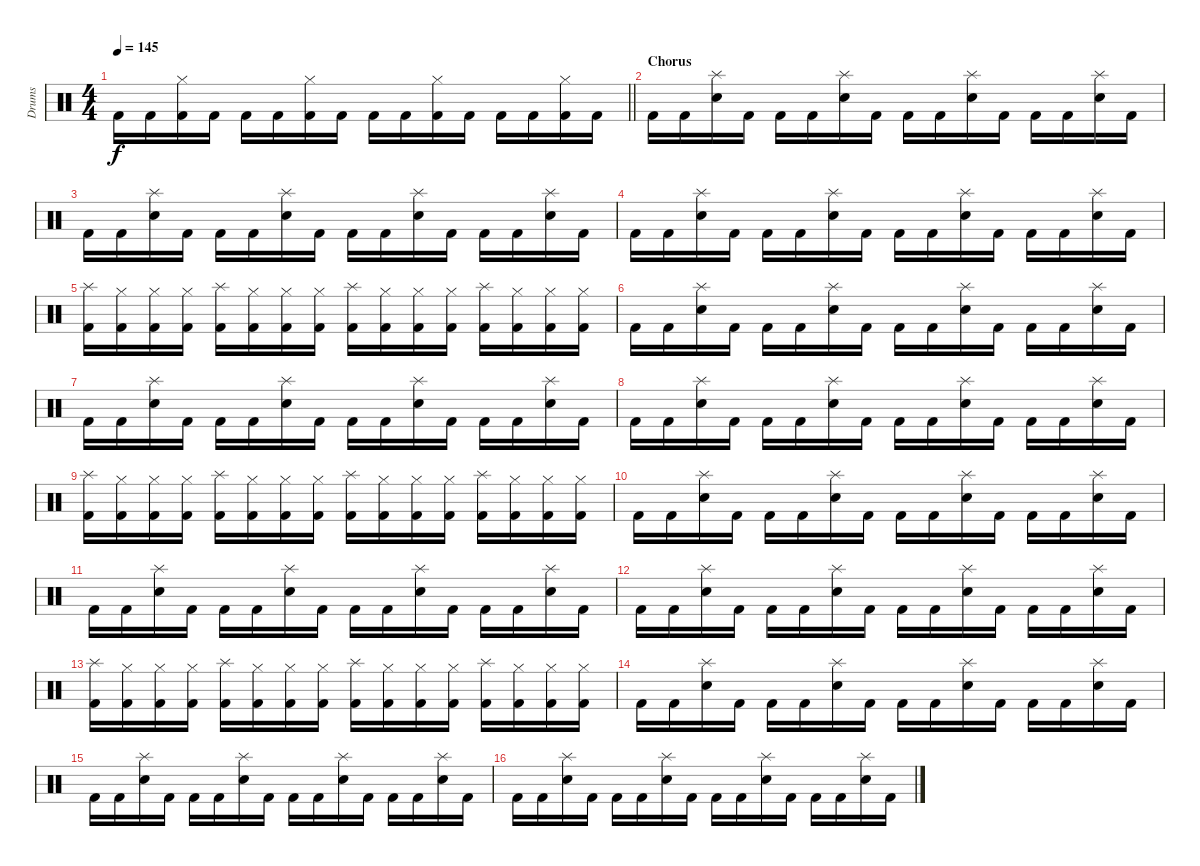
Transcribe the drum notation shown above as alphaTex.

\track ("Drums" "Drums") {instrument percussion}
\staff {score}
\articulation defaults
\ts (4 4)
\tempo 145
\clef neutral
\barLineRight lightlight
\ks c "Kick (hit) 2".16{dy f} "Kick (hit) 2".16
("Hi-Hat (closed)" "Kick (hit) 2").16 "Kick (hit) 2".16 "Kick (hit) 2".16 "Kick (hit) 2".16 ("Hi-Hat (closed)" "Kick (hit) 2").16 "Kick (hit) 2".16 "Kick (hit) 2".16 "Kick (hit) 2".16 ("Hi-Hat (closed)" "Kick (hit) 2").16 "Kick (hit) 2".16 "Kick (hit) 2".16 "Kick (hit) 2".16 ("Hi-Hat (closed)" "Kick (hit) 2").16 "Kick (hit) 2".16 |
\section ("" "Chorus")
"Kick (hit) 2".16 "Kick (hit) 2".16 ("Splash (hit)" "Electric Snare (hit)").16 "Kick (hit) 2".16 "Kick (hit) 2".16 "Kick (hit) 2".16 ("Splash (hit)" "Electric Snare (hit)").16 "Kick (hit) 2".16 "Kick (hit) 2".16 "Kick (hit) 2".16 ("Splash (hit)" "Electric Snare (hit)").16 "Kick (hit) 2".16 "Kick (hit) 2".16 "Kick (hit) 2".16 ("Splash (hit)" "Electric Snare (hit)").16 "Kick (hit) 2".16 |
"Kick (hit) 2".16 "Kick (hit) 2".16 ("Splash (hit)" "Electric Snare (hit)").16 "Kick (hit) 2".16 "Kick (hit) 2".16 "Kick (hit) 2".16 ("Splash (hit)" "Electric Snare (hit)").16 "Kick (hit) 2".16 "Kick (hit) 2".16 "Kick (hit) 2".16 ("Splash (hit)" "Electric Snare (hit)").16 "Kick (hit) 2".16 "Kick (hit) 2".16 "Kick (hit) 2".16 ("Splash (hit)" "Electric Snare (hit)").16 "Kick (hit) 2".16 |
"Kick (hit) 2".16 "Kick (hit) 2".16 ("Splash (hit)" "Electric Snare (hit)").16 "Kick (hit) 2".16 "Kick (hit) 2".16 "Kick (hit) 2".16 ("Splash (hit)" "Electric Snare (hit)").16 "Kick (hit) 2".16 "Kick (hit) 2".16 "Kick (hit) 2".16 ("Splash (hit)" "Electric Snare (hit)").16 "Kick (hit) 2".16 "Kick (hit) 2".16 "Kick (hit) 2".16 ("Splash (hit)" "Electric Snare (hit)").16 "Kick (hit) 2".16 |
("Splash (hit)" "Kick (hit) 2").16 ("Hi-Hat (closed)" "Kick (hit) 2").16 ("Hi-Hat (closed)" "Kick (hit) 2").16 ("Hi-Hat (closed)" "Kick (hit) 2").16 ("Splash (hit)" "Kick (hit) 2").16 ("Hi-Hat (closed)" "Kick (hit) 2").16 ("Hi-Hat (closed)" "Kick (hit) 2").16 ("Hi-Hat (closed)" "Kick (hit) 2").16 ("Splash (hit)" "Kick (hit) 2").16 ("Hi-Hat (closed)" "Kick (hit) 2").16 ("Hi-Hat (closed)" "Kick (hit) 2").16 ("Hi-Hat (closed)" "Kick (hit) 2").16 ("Splash (hit)" "Kick (hit) 2").16 ("Hi-Hat (closed)" "Kick (hit) 2").16 ("Hi-Hat (closed)" "Kick (hit) 2").16 ("Hi-Hat (closed)" "Kick (hit) 2").16 |
"Kick (hit) 2".16 "Kick (hit) 2".16 ("Splash (hit)" "Electric Snare (hit)").16 "Kick (hit) 2".16 "Kick (hit) 2".16 "Kick (hit) 2".16 ("Splash (hit)" "Electric Snare (hit)").16 "Kick (hit) 2".16 "Kick (hit) 2".16 "Kick (hit) 2".16 ("Splash (hit)" "Electric Snare (hit)").16 "Kick (hit) 2".16 "Kick (hit) 2".16 "Kick (hit) 2".16 ("Splash (hit)" "Electric Snare (hit)").16 "Kick (hit) 2".16 |
"Kick (hit) 2".16 "Kick (hit) 2".16 ("Splash (hit)" "Electric Snare (hit)").16 "Kick (hit) 2".16 "Kick (hit) 2".16 "Kick (hit) 2".16 ("Splash (hit)" "Electric Snare (hit)").16 "Kick (hit) 2".16 "Kick (hit) 2".16 "Kick (hit) 2".16 ("Splash (hit)" "Electric Snare (hit)").16 "Kick (hit) 2".16 "Kick (hit) 2".16 "Kick (hit) 2".16 ("Splash (hit)" "Electric Snare (hit)").16 "Kick (hit) 2".16 |
"Kick (hit) 2".16 "Kick (hit) 2".16 ("Splash (hit)" "Electric Snare (hit)").16 "Kick (hit) 2".16 "Kick (hit) 2".16 "Kick (hit) 2".16 ("Splash (hit)" "Electric Snare (hit)").16 "Kick (hit) 2".16 "Kick (hit) 2".16 "Kick (hit) 2".16 ("Splash (hit)" "Electric Snare (hit)").16 "Kick (hit) 2".16 "Kick (hit) 2".16 "Kick (hit) 2".16 ("Splash (hit)" "Electric Snare (hit)").16 "Kick (hit) 2".16 |
("Splash (hit)" "Kick (hit) 2").16 ("Hi-Hat (closed)" "Kick (hit) 2").16 ("Hi-Hat (closed)" "Kick (hit) 2").16 ("Hi-Hat (closed)" "Kick (hit) 2").16 ("Splash (hit)" "Kick (hit) 2").16 ("Hi-Hat (closed)" "Kick (hit) 2").16 ("Hi-Hat (closed)" "Kick (hit) 2").16 ("Hi-Hat (closed)" "Kick (hit) 2").16 ("Splash (hit)" "Kick (hit) 2").16 ("Hi-Hat (closed)" "Kick (hit) 2").16 ("Hi-Hat (closed)" "Kick (hit) 2").16 ("Hi-Hat (closed)" "Kick (hit) 2").16 ("Splash (hit)" "Kick (hit) 2").16 ("Hi-Hat (closed)" "Kick (hit) 2").16 ("Hi-Hat (closed)" "Kick (hit) 2").16 ("Hi-Hat (closed)" "Kick (hit) 2").16 |
"Kick (hit) 2".16 "Kick (hit) 2".16 ("Splash (hit)" "Electric Snare (hit)").16 "Kick (hit) 2".16 "Kick (hit) 2".16 "Kick (hit) 2".16 ("Splash (hit)" "Electric Snare (hit)").16 "Kick (hit) 2".16 "Kick (hit) 2".16 "Kick (hit) 2".16 ("Splash (hit)" "Electric Snare (hit)").16 "Kick (hit) 2".16 "Kick (hit) 2".16 "Kick (hit) 2".16 ("Splash (hit)" "Electric Snare (hit)").16 "Kick (hit) 2".16 |
"Kick (hit) 2".16 "Kick (hit) 2".16 ("Splash (hit)" "Electric Snare (hit)").16 "Kick (hit) 2".16 "Kick (hit) 2".16 "Kick (hit) 2".16 ("Splash (hit)" "Electric Snare (hit)").16 "Kick (hit) 2".16 "Kick (hit) 2".16 "Kick (hit) 2".16 ("Splash (hit)" "Electric Snare (hit)").16 "Kick (hit) 2".16 "Kick (hit) 2".16 "Kick (hit) 2".16 ("Splash (hit)" "Electric Snare (hit)").16 "Kick (hit) 2".16 |
"Kick (hit) 2".16 "Kick (hit) 2".16 ("Splash (hit)" "Electric Snare (hit)").16 "Kick (hit) 2".16 "Kick (hit) 2".16 "Kick (hit) 2".16 ("Splash (hit)" "Electric Snare (hit)").16 "Kick (hit) 2".16 "Kick (hit) 2".16 "Kick (hit) 2".16 ("Splash (hit)" "Electric Snare (hit)").16 "Kick (hit) 2".16 "Kick (hit) 2".16 "Kick (hit) 2".16 ("Splash (hit)" "Electric Snare (hit)").16 "Kick (hit) 2".16 |
("Splash (hit)" "Kick (hit) 2").16 ("Hi-Hat (closed)" "Kick (hit) 2").16 ("Hi-Hat (closed)" "Kick (hit) 2").16 ("Hi-Hat (closed)" "Kick (hit) 2").16 ("Splash (hit)" "Kick (hit) 2").16 ("Hi-Hat (closed)" "Kick (hit) 2").16 ("Hi-Hat (closed)" "Kick (hit) 2").16 ("Hi-Hat (closed)" "Kick (hit) 2").16 ("Splash (hit)" "Kick (hit) 2").16 ("Hi-Hat (closed)" "Kick (hit) 2").16 ("Hi-Hat (closed)" "Kick (hit) 2").16 ("Hi-Hat (closed)" "Kick (hit) 2").16 ("Splash (hit)" "Kick (hit) 2").16 ("Hi-Hat (closed)" "Kick (hit) 2").16 ("Hi-Hat (closed)" "Kick (hit) 2").16 ("Hi-Hat (closed)" "Kick (hit) 2").16 |
"Kick (hit) 2".16 "Kick (hit) 2".16 ("Splash (hit)" "Electric Snare (hit)").16 "Kick (hit) 2".16 "Kick (hit) 2".16 "Kick (hit) 2".16 ("Splash (hit)" "Electric Snare (hit)").16 "Kick (hit) 2".16 "Kick (hit) 2".16 "Kick (hit) 2".16 ("Splash (hit)" "Electric Snare (hit)").16 "Kick (hit) 2".16 "Kick (hit) 2".16 "Kick (hit) 2".16 ("Splash (hit)" "Electric Snare (hit)").16 "Kick (hit) 2".16 |
"Kick (hit) 2".16 "Kick (hit) 2".16 ("Splash (hit)" "Electric Snare (hit)").16 "Kick (hit) 2".16 "Kick (hit) 2".16 "Kick (hit) 2".16 ("Splash (hit)" "Electric Snare (hit)").16 "Kick (hit) 2".16 "Kick (hit) 2".16 "Kick (hit) 2".16 ("Splash (hit)" "Electric Snare (hit)").16 "Kick (hit) 2".16 "Kick (hit) 2".16 "Kick (hit) 2".16 ("Splash (hit)" "Electric Snare (hit)").16 "Kick (hit) 2".16 |
"Kick (hit) 2".16 "Kick (hit) 2".16 ("Splash (hit)" "Electric Snare (hit)").16 "Kick (hit) 2".16 "Kick (hit) 2".16 "Kick (hit) 2".16 ("Splash (hit)" "Electric Snare (hit)").16 "Kick (hit) 2".16 "Kick (hit) 2".16 "Kick (hit) 2".16 ("Splash (hit)" "Electric Snare (hit)").16 "Kick (hit) 2".16 "Kick (hit) 2".16 "Kick (hit) 2".16 ("Splash (hit)" "Electric Snare (hit)").16 "Kick (hit) 2".16
